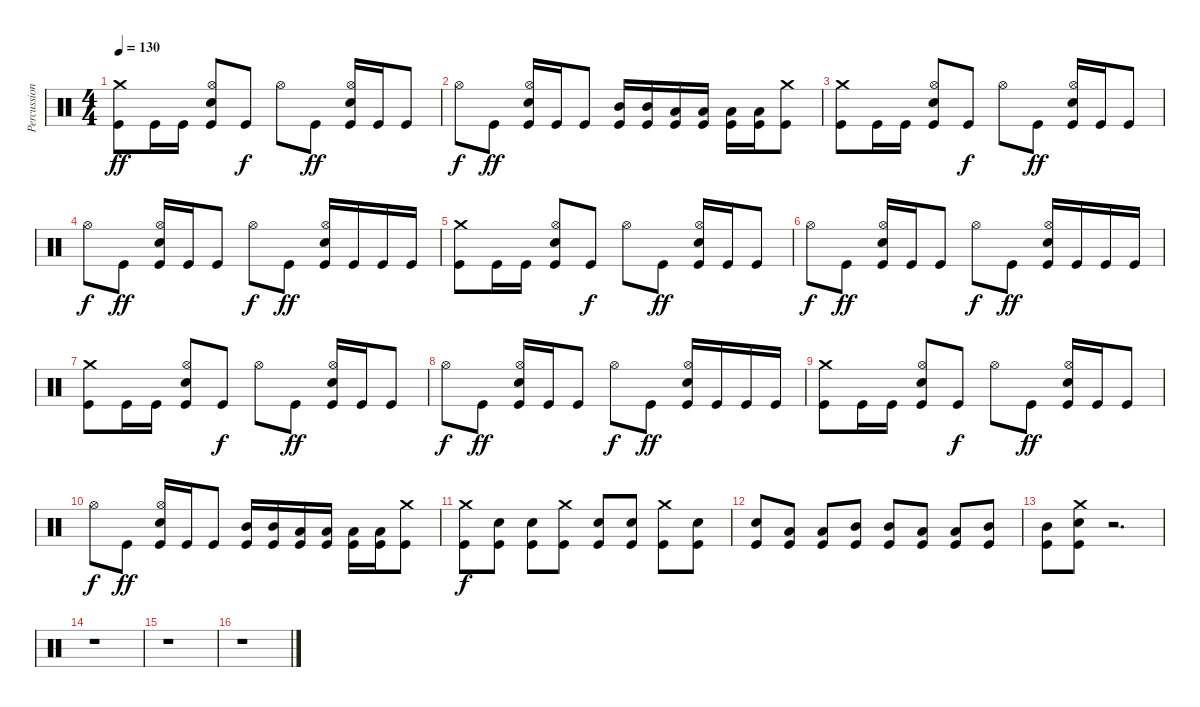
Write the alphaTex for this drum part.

\track ("Percussion" "Percussion") {instrument percussion}
\staff {score}
\articulation defaults
\ts (4 4)
\tempo 130
\clef neutral
\ks c
("Crash medium (hit)" "Kick (hit)").8{dy ff} "Kick (hit)".16 "Kick (hit)".16 ("Hi-Hat (open)" "Snare (hit) 2" "Kick (hit)").8 "Kick (hit)".8{dy f} "Hi-Hat (open)".8 "Kick (hit)".8{dy ff} ("Hi-Hat (open)" "Snare (hit) 2" "Kick (hit)").16 "Kick (hit)".16 "Kick (hit)".8 |
"Hi-Hat (open)".8{dy f} "Kick (hit)".8{dy ff} ("Hi-Hat (open)" "Snare (hit) 2" "Kick (hit)").16 "Kick (hit)".16 "Kick (hit)".8 ("Mid Tom (hit)" "Kick (hit)").16 ("Mid Tom (hit)" "Kick (hit)").16 ("Low Tom (hit)" "Kick (hit)").16 ("Low Tom (hit)" "Kick (hit)").16 ("Low Tom (hit)" "Kick (hit)").16 ("Low Tom (hit)" "Kick (hit)").16 ("Crash medium (hit)" "Kick (hit)").8 |
("Crash medium (hit)" "Kick (hit)").8 "Kick (hit)".16 "Kick (hit)".16 ("Hi-Hat (open)" "Snare (hit) 2" "Kick (hit)").8 "Kick (hit)".8{dy f} "Hi-Hat (open)".8 "Kick (hit)".8{dy ff} ("Hi-Hat (open)" "Snare (hit) 2" "Kick (hit)").16 "Kick (hit)".16 "Kick (hit)".8 |
"Hi-Hat (open)".8{dy f} "Kick (hit)".8{dy ff} ("Hi-Hat (open)" "Snare (hit) 2" "Kick (hit)").16 "Kick (hit)".16 "Kick (hit)".8 "Hi-Hat (open)".8{dy f} "Kick (hit)".8{dy ff} ("Hi-Hat (open)" "Snare (hit) 2" "Kick (hit)").16 "Kick (hit)".16 "Kick (hit)".16 "Kick (hit)".16 |
("Crash medium (hit)" "Kick (hit)").8 "Kick (hit)".16 "Kick (hit)".16 ("Hi-Hat (open)" "Snare (hit) 2" "Kick (hit)").8 "Kick (hit)".8{dy f} "Hi-Hat (open)".8 "Kick (hit)".8{dy ff} ("Hi-Hat (open)" "Snare (hit) 2" "Kick (hit)").16 "Kick (hit)".16 "Kick (hit)".8 |
"Hi-Hat (open)".8{dy f} "Kick (hit)".8{dy ff} ("Hi-Hat (open)" "Snare (hit) 2" "Kick (hit)").16 "Kick (hit)".16 "Kick (hit)".8 "Hi-Hat (open)".8{dy f} "Kick (hit)".8{dy ff} ("Hi-Hat (open)" "Snare (hit) 2" "Kick (hit)").16 "Kick (hit)".16 "Kick (hit)".16 "Kick (hit)".16 |
("Crash medium (hit)" "Kick (hit)").8 "Kick (hit)".16 "Kick (hit)".16 ("Hi-Hat (open)" "Snare (hit) 2" "Kick (hit)").8 "Kick (hit)".8{dy f} "Hi-Hat (open)".8 "Kick (hit)".8{dy ff} ("Hi-Hat (open)" "Snare (hit) 2" "Kick (hit)").16 "Kick (hit)".16 "Kick (hit)".8 |
"Hi-Hat (open)".8{dy f} "Kick (hit)".8{dy ff} ("Hi-Hat (open)" "Snare (hit) 2" "Kick (hit)").16 "Kick (hit)".16 "Kick (hit)".8 "Hi-Hat (open)".8{dy f} "Kick (hit)".8{dy ff} ("Hi-Hat (open)" "Snare (hit) 2" "Kick (hit)").16 "Kick (hit)".16 "Kick (hit)".16 "Kick (hit)".16 |
("Crash medium (hit)" "Kick (hit)").8 "Kick (hit)".16 "Kick (hit)".16 ("Hi-Hat (open)" "Snare (hit) 2" "Kick (hit)").8 "Kick (hit)".8{dy f} "Hi-Hat (open)".8 "Kick (hit)".8{dy ff} ("Hi-Hat (open)" "Snare (hit) 2" "Kick (hit)").16 "Kick (hit)".16 "Kick (hit)".8 |
"Hi-Hat (open)".8{dy f} "Kick (hit)".8{dy ff} ("Hi-Hat (open)" "Snare (hit) 2" "Kick (hit)").16 "Kick (hit)".16 "Kick (hit)".8 ("Mid Tom (hit)" "Kick (hit)").16 ("Mid Tom (hit)" "Kick (hit)").16 ("Low Tom (hit)" "Kick (hit)").16 ("Low Tom (hit)" "Kick (hit)").16 ("Low Tom (hit)" "Kick (hit)").16 ("Low Tom (hit)" "Kick (hit)").16 ("Crash medium (hit)" "Kick (hit)").8 |
("Crash medium (hit)" "Kick (hit)").8{dy f} ("Snare (hit) 2" "Kick (hit)").8 ("Snare (hit) 2" "Kick (hit)").8 ("Crash medium (hit)" "Kick (hit)").8 ("Snare (hit) 2" "Kick (hit)").8 ("Snare (hit) 2" "Kick (hit)").8 ("Crash medium (hit)" "Kick (hit)").8 ("Snare (hit) 2" "Kick (hit)").8 |
("Snare (hit) 2" "Kick (hit)").8 ("Low Tom (hit)" "Kick (hit)").8 ("Low Tom (hit)" "Kick (hit)").8 ("Mid Tom (hit)" "Kick (hit)").8 ("Mid Tom (hit)" "Kick (hit)").8 ("Low Tom (hit)" "Kick (hit)").8 ("Low Tom (hit)" "Kick (hit)").8 ("Mid Tom (hit)" "Kick (hit)").8 |
("Mid Tom (hit)" "Kick (hit)").8 ("Crash medium (hit)" "Snare (hit) 2" "Kick (hit)").8 r.2{d} |
r.1 |
r.1 |
r.1
